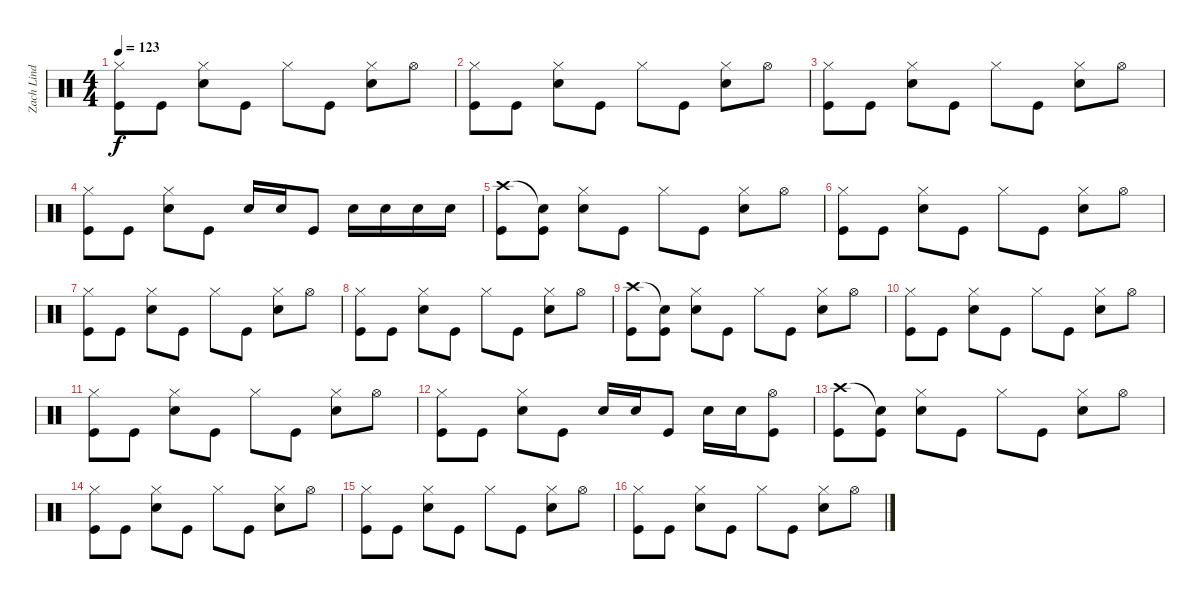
\track ("Zach Lind (Drums)" "Zach Lind ") {instrument percussion}
\staff {score}
\articulation defaults
\ts (4 4)
\tempo 123
\clef neutral
\ks c
("Hi-Hat (closed)" "Kick (hit)").8{dy f} "Kick (hit)".8 ("Hi-Hat (closed)" "Snare (hit) 2").8 "Kick (hit)".8 "Hi-Hat (closed)".8 "Kick (hit)".8 ("Hi-Hat (closed)" "Snare (hit) 2").8 "Hi-Hat (open)".8 |
("Hi-Hat (closed)" "Kick (hit)").8 "Kick (hit)".8 ("Hi-Hat (closed)" "Snare (hit) 2").8 "Kick (hit)".8 "Hi-Hat (closed)".8 "Kick (hit)".8 ("Hi-Hat (closed)" "Snare (hit) 2").8 "Hi-Hat (open)".8 |
("Hi-Hat (closed)" "Kick (hit)").8 "Kick (hit)".8 ("Hi-Hat (closed)" "Snare (hit) 2").8 "Kick (hit)".8 "Hi-Hat (closed)".8 "Kick (hit)".8 ("Hi-Hat (closed)" "Snare (hit) 2").8 "Hi-Hat (open)".8 |
("Hi-Hat (closed)" "Kick (hit)").8 "Kick (hit)".8 ("Hi-Hat (closed)" "Snare (hit) 2").8 "Kick (hit)".8 "Snare (hit) 2".16 "Snare (hit) 2".16 "Kick (hit)".8 "Snare (hit) 2".16 "Snare (hit) 2".16 "Snare (hit) 2".16 "Snare (hit) 2".16 |
("Crash high (hit)" "Kick (hit)").8 ("Snare (hit)"{t} "Kick (hit)").8 ("Hi-Hat (closed)" "Snare (hit) 2").8 "Kick (hit)".8 "Hi-Hat (closed)".8 "Kick (hit)".8 ("Hi-Hat (closed)" "Snare (hit) 2").8 "Hi-Hat (open)".8 |
("Hi-Hat (closed)" "Kick (hit)").8 "Kick (hit)".8 ("Hi-Hat (closed)" "Snare (hit) 2").8 "Kick (hit)".8 "Hi-Hat (closed)".8 "Kick (hit)".8 ("Hi-Hat (closed)" "Snare (hit) 2").8 "Hi-Hat (open)".8 |
("Hi-Hat (closed)" "Kick (hit)").8 "Kick (hit)".8 ("Hi-Hat (closed)" "Snare (hit) 2").8 "Kick (hit)".8 "Hi-Hat (closed)".8 "Kick (hit)".8 ("Hi-Hat (closed)" "Snare (hit) 2").8 "Hi-Hat (open)".8 |
("Hi-Hat (closed)" "Kick (hit)").8 "Kick (hit)".8 ("Hi-Hat (closed)" "Snare (hit) 2").8 "Kick (hit)".8 "Hi-Hat (closed)".8 "Kick (hit)".8 ("Hi-Hat (closed)" "Snare (hit) 2").8 "Hi-Hat (open)".8 |
("Crash high (hit)" "Kick (hit)").8 ("Snare (hit)"{t} "Kick (hit)").8 ("Hi-Hat (closed)" "Snare (hit) 2").8 "Kick (hit)".8 "Hi-Hat (closed)".8 "Kick (hit)".8 ("Hi-Hat (closed)" "Snare (hit) 2").8 "Hi-Hat (open)".8 |
("Hi-Hat (closed)" "Kick (hit)").8 "Kick (hit)".8 ("Hi-Hat (closed)" "Snare (hit) 2").8 "Kick (hit)".8 "Hi-Hat (closed)".8 "Kick (hit)".8 ("Hi-Hat (closed)" "Snare (hit) 2").8 "Hi-Hat (open)".8 |
("Hi-Hat (closed)" "Kick (hit)").8 "Kick (hit)".8 ("Hi-Hat (closed)" "Snare (hit) 2").8 "Kick (hit)".8 "Hi-Hat (closed)".8 "Kick (hit)".8 ("Hi-Hat (closed)" "Snare (hit) 2").8 "Hi-Hat (open)".8 |
("Hi-Hat (closed)" "Kick (hit)").8 "Kick (hit)".8 ("Hi-Hat (closed)" "Snare (hit) 2").8 "Kick (hit)".8 "Snare (hit) 2".16 "Snare (hit) 2".16 "Kick (hit)".8 "Snare (hit) 2".16 "Snare (hit) 2".16 ("Hi-Hat (open)" "Kick (hit)").8 |
("Crash high (hit)" "Kick (hit)").8 ("Snare (hit)"{t} "Kick (hit)").8 ("Hi-Hat (closed)" "Snare (hit) 2").8 "Kick (hit)".8 "Hi-Hat (closed)".8 "Kick (hit)".8 ("Hi-Hat (closed)" "Snare (hit) 2").8 "Hi-Hat (open)".8 |
("Hi-Hat (closed)" "Kick (hit)").8 "Kick (hit)".8 ("Hi-Hat (closed)" "Snare (hit) 2").8 "Kick (hit)".8 "Hi-Hat (closed)".8 "Kick (hit)".8 ("Hi-Hat (closed)" "Snare (hit) 2").8 "Hi-Hat (open)".8 |
("Hi-Hat (closed)" "Kick (hit)").8 "Kick (hit)".8 ("Hi-Hat (closed)" "Snare (hit) 2").8 "Kick (hit)".8 "Hi-Hat (closed)".8 "Kick (hit)".8 ("Hi-Hat (closed)" "Snare (hit) 2").8 "Hi-Hat (open)".8 |
("Hi-Hat (closed)" "Kick (hit)").8 "Kick (hit)".8 ("Hi-Hat (closed)" "Snare (hit) 2").8 "Kick (hit)".8 "Hi-Hat (closed)".8 "Kick (hit)".8 ("Hi-Hat (closed)" "Snare (hit) 2").8 "Hi-Hat (open)".8
